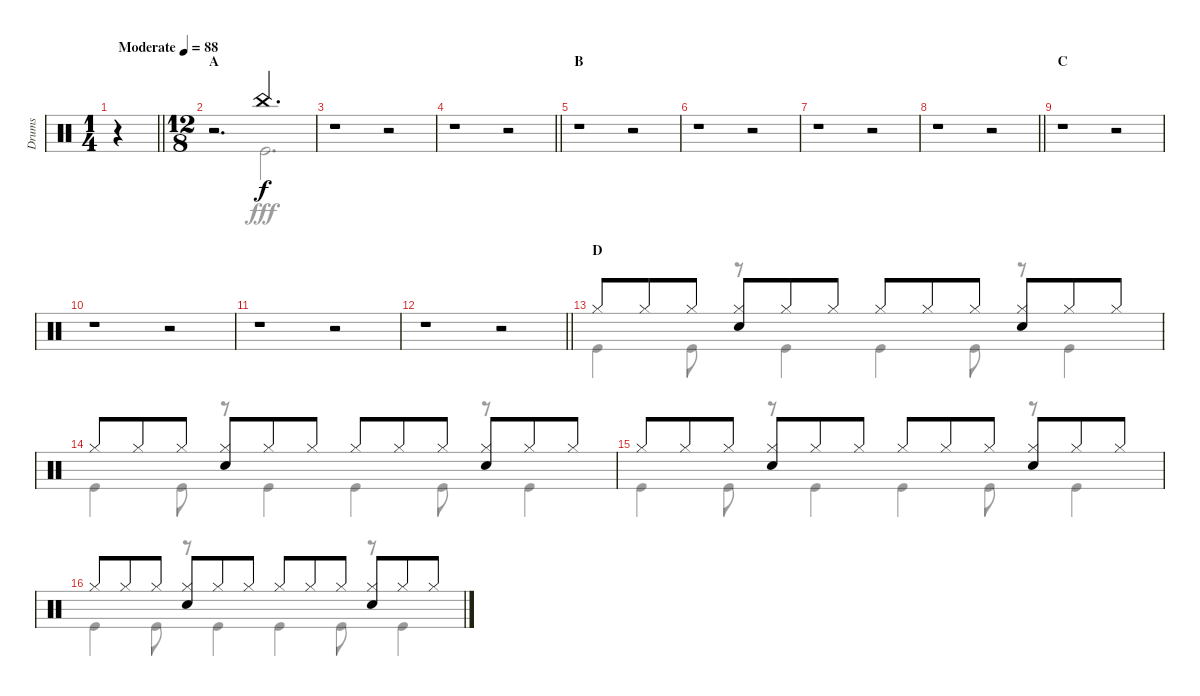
\track ("Drums" "Drums") {instrument percussion}
\staff {score}
\articulation defaults
\voice
\ts (1 4)
\tempo (88 "Moderate")
\clef neutral
\barLineRight lightlight
\ks c
r.4{dy f} |
\ts (12 8)
\section ("" "A")
r.2{d} "China (hit)".2{d} |
r.1 r.2 |
\barLineRight lightlight
r.1 r.2 |
\section ("" "B")
r.1 r.2 |
r.1 r.2 |
r.1 r.2 |
\barLineRight lightlight
r.1 r.2 |
\section ("" "C")
r.1 r.2 |
r.1 r.2 |
r.1 r.2 |
\barLineRight lightlight
r.1 r.2 |
\section ("" "D")
"Hi-Hat (closed)".8 "Hi-Hat (closed)".8 "Hi-Hat (closed)".8 ("Hi-Hat (closed)" "Snare (hit) 2").8 "Hi-Hat (closed)".8 "Hi-Hat (closed)".8 "Hi-Hat (closed)".8 "Hi-Hat (closed)".8 "Hi-Hat (closed)".8 ("Hi-Hat (closed)" "Snare (hit) 2").8 "Hi-Hat (closed)".8 "Hi-Hat (closed)".8 |
"Hi-Hat (closed)".8 "Hi-Hat (closed)".8 "Hi-Hat (closed)".8 ("Hi-Hat (closed)" "Snare (hit) 2").8 "Hi-Hat (closed)".8 "Hi-Hat (closed)".8 "Hi-Hat (closed)".8 "Hi-Hat (closed)".8 "Hi-Hat (closed)".8 ("Hi-Hat (closed)" "Snare (hit) 2").8 "Hi-Hat (closed)".8 "Hi-Hat (closed)".8 |
"Hi-Hat (closed)".8 "Hi-Hat (closed)".8 "Hi-Hat (closed)".8 ("Hi-Hat (closed)" "Snare (hit) 2").8 "Hi-Hat (closed)".8 "Hi-Hat (closed)".8 "Hi-Hat (closed)".8 "Hi-Hat (closed)".8 "Hi-Hat (closed)".8 ("Hi-Hat (closed)" "Snare (hit) 2").8 "Hi-Hat (closed)".8 "Hi-Hat (closed)".8 |
"Hi-Hat (closed)".8 "Hi-Hat (closed)".8 "Hi-Hat (closed)".8 ("Hi-Hat (closed)" "Snare (hit) 2").8 "Hi-Hat (closed)".8 "Hi-Hat (closed)".8 "Hi-Hat (closed)".8 "Hi-Hat (closed)".8 "Hi-Hat (closed)".8 ("Hi-Hat (closed)" "Snare (hit) 2").8 "Hi-Hat (closed)".8 "Hi-Hat (closed)".8
\voice
\clef neutral
\ottava regular
\simile none
\barLineRight lightlight
\ks c
r.4{dy fff} |
r.2{d} "Kick (hit)".2{d} |
r.1 r.2 |
\barLineRight lightlight
r.1 r.2 |
r.1 r.2 |
r.1 r.2 |
r.1 r.2 |
\barLineRight lightlight
r.1 r.2 |
r.1 r.2 |
r.1 r.2 |
r.1 r.2 |
\barLineRight lightlight
r.1 r.2 |
"Kick (hit)".4 "Kick (hit)".8 r.8 "Kick (hit)".4 "Kick (hit)".4 "Kick (hit)".8 r.8 "Kick (hit)".4 |
"Kick (hit)".4 "Kick (hit)".8 r.8 "Kick (hit)".4 "Kick (hit)".4 "Kick (hit)".8 r.8 "Kick (hit)".4 |
"Kick (hit)".4 "Kick (hit)".8 r.8 "Kick (hit)".4 "Kick (hit)".4 "Kick (hit)".8 r.8 "Kick (hit)".4 |
"Kick (hit)".4 "Kick (hit)".8 r.8 "Kick (hit)".4 "Kick (hit)".4 "Kick (hit)".8 r.8 "Kick (hit)".4
